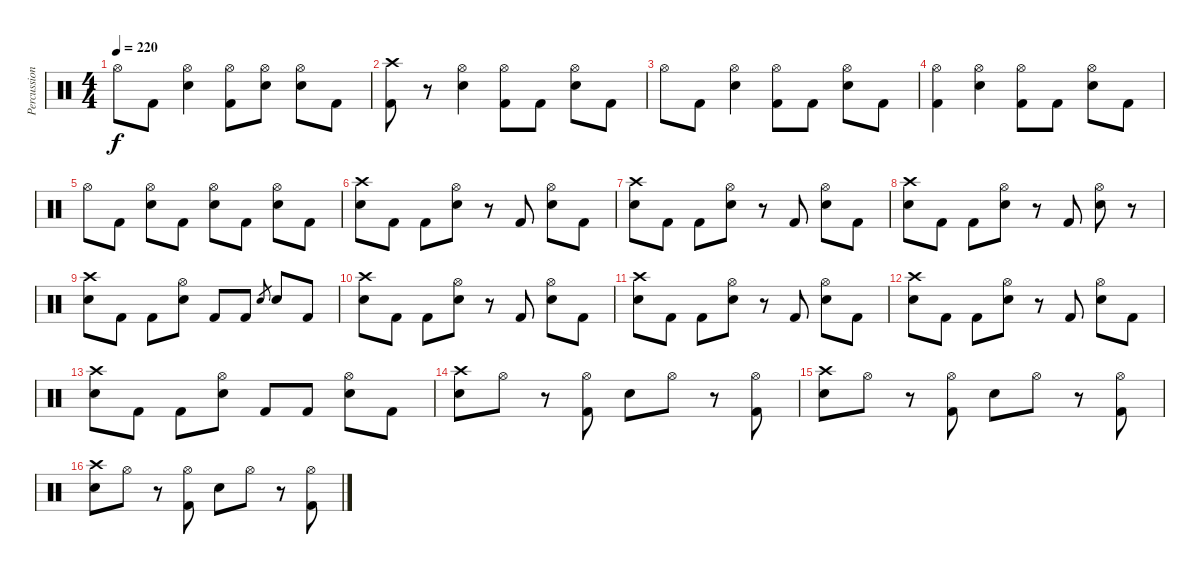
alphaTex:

\track ("Percussion" "Percussion") {instrument percussion}
\staff {score}
\articulation defaults
\ts (4 4)
\tempo 220
\clef neutral
\ks c "Hi-Hat (open)".8{dy f} "Kick (hit) 2".8
("Hi-Hat (open)" "Electric Snare (hit)").4 ("Hi-Hat (open)" "Kick (hit) 2").8 ("Hi-Hat (open)" "Electric Snare (hit)").8 ("Hi-Hat (open)" "Electric Snare (hit)").8 "Kick (hit) 2".8 |
("Crash high (hit)" "Kick (hit) 2").8 r.8 ("Hi-Hat (open)" "Electric Snare (hit)").4 ("Hi-Hat (open)" "Kick (hit) 2").8 "Kick (hit) 2".8 ("Hi-Hat (open)" "Electric Snare (hit)").8 "Kick (hit) 2".8 |
"Hi-Hat (open)".8 "Kick (hit) 2".8 ("Hi-Hat (open)" "Electric Snare (hit)").4 ("Hi-Hat (open)" "Kick (hit) 2").8 "Kick (hit) 2".8 ("Hi-Hat (open)" "Electric Snare (hit)").8 "Kick (hit) 2".8 |
("Hi-Hat (open)" "Kick (hit) 2").4 ("Hi-Hat (open)" "Electric Snare (hit)").4 ("Hi-Hat (open)" "Kick (hit) 2").8 "Kick (hit) 2".8 ("Hi-Hat (open)" "Electric Snare (hit)").8 "Kick (hit) 2".8 |
"Hi-Hat (open)".8 "Kick (hit) 2".8 ("Hi-Hat (open)" "Electric Snare (hit)").8 "Kick (hit) 2".8 ("Hi-Hat (open)" "Electric Snare (hit)").8 "Kick (hit) 2".8 ("Hi-Hat (open)" "Electric Snare (hit)").8 "Kick (hit) 2".8 |
("Crash high (hit)" "Electric Snare (hit)").8 "Kick (hit) 2".8 "Kick (hit) 2".8 ("Hi-Hat (open)" "Electric Snare (hit)").8 r.8 "Kick (hit) 2".8 ("Hi-Hat (open)" "Electric Snare (hit)").8 "Kick (hit) 2".8 |
("Crash high (hit)" "Electric Snare (hit)").8 "Kick (hit) 2".8 "Kick (hit) 2".8 ("Hi-Hat (open)" "Electric Snare (hit)").8 r.8 "Kick (hit) 2".8 ("Hi-Hat (open)" "Electric Snare (hit)").8 "Kick (hit) 2".8 |
("Crash high (hit)" "Electric Snare (hit)").8 "Kick (hit) 2".8 "Kick (hit) 2".8 ("Hi-Hat (open)" "Electric Snare (hit)").8 r.8 "Kick (hit) 2".8 ("Hi-Hat (open)" "Electric Snare (hit)").8 r.8 |
("Crash high (hit)" "Electric Snare (hit)").8 "Kick (hit) 2".8 "Kick (hit) 2".8 ("Hi-Hat (open)" "Electric Snare (hit)").8 "Kick (hit) 2".8 "Kick (hit) 2".8 "Electric Snare (hit)".8{gr} "Electric Snare (hit)".8 "Kick (hit) 2".8 |
("Crash high (hit)" "Electric Snare (hit)").8 "Kick (hit) 2".8 "Kick (hit) 2".8 ("Hi-Hat (open)" "Electric Snare (hit)").8 r.8 "Kick (hit) 2".8 ("Hi-Hat (open)" "Electric Snare (hit)").8 "Kick (hit) 2".8 |
("Crash high (hit)" "Electric Snare (hit)").8 "Kick (hit) 2".8 "Kick (hit) 2".8 ("Hi-Hat (open)" "Electric Snare (hit)").8 r.8 "Kick (hit) 2".8 ("Hi-Hat (open)" "Electric Snare (hit)").8 "Kick (hit) 2".8 |
("Crash high (hit)" "Electric Snare (hit)").8 "Kick (hit) 2".8 "Kick (hit) 2".8 ("Hi-Hat (open)" "Electric Snare (hit)").8 r.8 "Kick (hit) 2".8 ("Hi-Hat (open)" "Electric Snare (hit)").8 "Kick (hit) 2".8 |
("Crash high (hit)" "Electric Snare (hit)").8 "Kick (hit) 2".8 "Kick (hit) 2".8 ("Hi-Hat (open)" "Electric Snare (hit)").8 "Kick (hit) 2".8 "Kick (hit) 2".8 ("Hi-Hat (open)" "Electric Snare (hit)").8 "Kick (hit) 2".8 |
("Crash high (hit)" "Electric Snare (hit)").8 "Hi-Hat (open)".8 r.8 ("Hi-Hat (open)" "Kick (hit) 2").8 "Electric Snare (hit)".8 "Hi-Hat (open)".8 r.8 ("Hi-Hat (open)" "Kick (hit) 2").8 |
("Crash high (hit)" "Electric Snare (hit)").8 "Hi-Hat (open)".8 r.8 ("Hi-Hat (open)" "Kick (hit) 2").8 "Electric Snare (hit)".8 "Hi-Hat (open)".8 r.8 ("Hi-Hat (open)" "Kick (hit) 2").8 |
("Crash high (hit)" "Electric Snare (hit)").8 "Hi-Hat (open)".8 r.8 ("Hi-Hat (open)" "Kick (hit) 2").8 "Electric Snare (hit)".8 "Hi-Hat (open)".8 r.8 ("Hi-Hat (open)" "Kick (hit) 2").8
